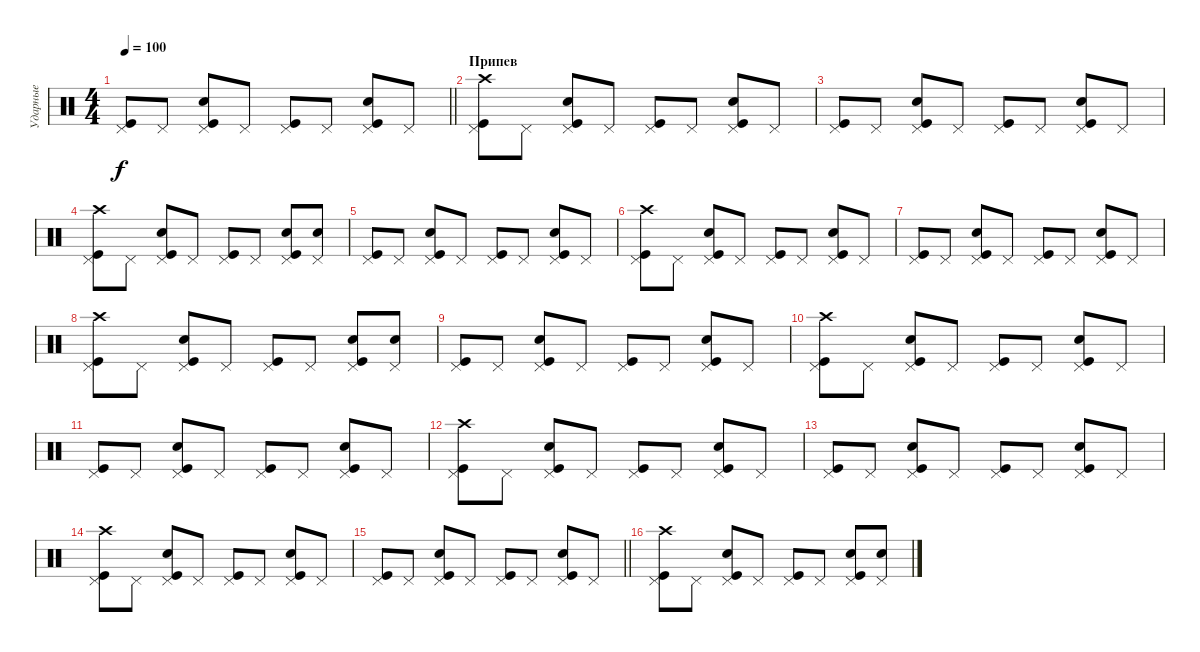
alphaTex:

\track ("Ударные" "Ударные") {instrument percussion}
\staff {score}
\articulation defaults
\ts (4 4)
\tempo 100
\clef neutral
\barLineRight lightlight
\ks c
("Pedal Hi-Hat (hit)" "Kick (hit)").8{dy f} "Pedal Hi-Hat (hit)".8 ("Pedal Hi-Hat (hit)" "Kick (hit)" "Snare (hit) 2").8 "Pedal Hi-Hat (hit)".8 ("Pedal Hi-Hat (hit)" "Kick (hit)").8 "Pedal Hi-Hat (hit)".8 ("Pedal Hi-Hat (hit)" "Kick (hit)" "Snare (hit) 2").8 "Pedal Hi-Hat (hit)".8 |
\section ("" "Припев")
("Pedal Hi-Hat (hit)" "Kick (hit)" "Crash high (hit)").8 "Pedal Hi-Hat (hit)".8 ("Pedal Hi-Hat (hit)" "Kick (hit)" "Snare (hit) 2").8 "Pedal Hi-Hat (hit)".8 ("Pedal Hi-Hat (hit)" "Kick (hit)").8 "Pedal Hi-Hat (hit)".8 ("Pedal Hi-Hat (hit)" "Kick (hit)" "Snare (hit) 2").8 "Pedal Hi-Hat (hit)".8 |
("Pedal Hi-Hat (hit)" "Kick (hit)").8 "Pedal Hi-Hat (hit)".8 ("Pedal Hi-Hat (hit)" "Kick (hit)" "Snare (hit) 2").8 "Pedal Hi-Hat (hit)".8 ("Pedal Hi-Hat (hit)" "Kick (hit)").8 "Pedal Hi-Hat (hit)".8 ("Pedal Hi-Hat (hit)" "Kick (hit)" "Snare (hit) 2").8 "Pedal Hi-Hat (hit)".8 |
("Pedal Hi-Hat (hit)" "Kick (hit)" "Crash high (hit)").8 "Pedal Hi-Hat (hit)".8 ("Pedal Hi-Hat (hit)" "Kick (hit)" "Snare (hit) 2").8 "Pedal Hi-Hat (hit)".8 ("Pedal Hi-Hat (hit)" "Kick (hit)").8 "Pedal Hi-Hat (hit)".8 ("Pedal Hi-Hat (hit)" "Kick (hit)" "Snare (hit) 2").8 ("Pedal Hi-Hat (hit)" "Snare (hit) 2").8 |
("Pedal Hi-Hat (hit)" "Kick (hit)").8 "Pedal Hi-Hat (hit)".8 ("Pedal Hi-Hat (hit)" "Kick (hit)" "Snare (hit) 2").8 "Pedal Hi-Hat (hit)".8 ("Pedal Hi-Hat (hit)" "Kick (hit)").8 "Pedal Hi-Hat (hit)".8 ("Pedal Hi-Hat (hit)" "Kick (hit)" "Snare (hit) 2").8 "Pedal Hi-Hat (hit)".8 |
("Pedal Hi-Hat (hit)" "Kick (hit)" "Crash high (hit)").8 "Pedal Hi-Hat (hit)".8 ("Pedal Hi-Hat (hit)" "Kick (hit)" "Snare (hit) 2").8 "Pedal Hi-Hat (hit)".8 ("Pedal Hi-Hat (hit)" "Kick (hit)").8 "Pedal Hi-Hat (hit)".8 ("Pedal Hi-Hat (hit)" "Kick (hit)" "Snare (hit) 2").8 "Pedal Hi-Hat (hit)".8 |
("Pedal Hi-Hat (hit)" "Kick (hit)").8 "Pedal Hi-Hat (hit)".8 ("Pedal Hi-Hat (hit)" "Kick (hit)" "Snare (hit) 2").8 "Pedal Hi-Hat (hit)".8 ("Pedal Hi-Hat (hit)" "Kick (hit)").8 "Pedal Hi-Hat (hit)".8 ("Pedal Hi-Hat (hit)" "Kick (hit)" "Snare (hit) 2").8 "Pedal Hi-Hat (hit)".8 |
("Pedal Hi-Hat (hit)" "Kick (hit)" "Crash high (hit)").8 "Pedal Hi-Hat (hit)".8 ("Pedal Hi-Hat (hit)" "Kick (hit)" "Snare (hit) 2").8 "Pedal Hi-Hat (hit)".8 ("Pedal Hi-Hat (hit)" "Kick (hit)").8 "Pedal Hi-Hat (hit)".8 ("Pedal Hi-Hat (hit)" "Kick (hit)" "Snare (hit) 2").8 ("Pedal Hi-Hat (hit)" "Snare (hit) 2").8 |
("Pedal Hi-Hat (hit)" "Kick (hit)").8 "Pedal Hi-Hat (hit)".8 ("Pedal Hi-Hat (hit)" "Kick (hit)" "Snare (hit) 2").8 "Pedal Hi-Hat (hit)".8 ("Pedal Hi-Hat (hit)" "Kick (hit)").8 "Pedal Hi-Hat (hit)".8 ("Pedal Hi-Hat (hit)" "Kick (hit)" "Snare (hit) 2").8 "Pedal Hi-Hat (hit)".8 |
("Pedal Hi-Hat (hit)" "Kick (hit)" "Crash high (hit)").8 "Pedal Hi-Hat (hit)".8 ("Pedal Hi-Hat (hit)" "Kick (hit)" "Snare (hit) 2").8 "Pedal Hi-Hat (hit)".8 ("Pedal Hi-Hat (hit)" "Kick (hit)").8 "Pedal Hi-Hat (hit)".8 ("Pedal Hi-Hat (hit)" "Kick (hit)" "Snare (hit) 2").8 "Pedal Hi-Hat (hit)".8 |
("Pedal Hi-Hat (hit)" "Kick (hit)").8 "Pedal Hi-Hat (hit)".8 ("Pedal Hi-Hat (hit)" "Kick (hit)" "Snare (hit) 2").8 "Pedal Hi-Hat (hit)".8 ("Pedal Hi-Hat (hit)" "Kick (hit)").8 "Pedal Hi-Hat (hit)".8 ("Pedal Hi-Hat (hit)" "Kick (hit)" "Snare (hit) 2").8 "Pedal Hi-Hat (hit)".8 |
("Pedal Hi-Hat (hit)" "Kick (hit)" "Crash high (hit)").8 "Pedal Hi-Hat (hit)".8 ("Pedal Hi-Hat (hit)" "Kick (hit)" "Snare (hit) 2").8 "Pedal Hi-Hat (hit)".8 ("Pedal Hi-Hat (hit)" "Kick (hit)").8 "Pedal Hi-Hat (hit)".8 ("Pedal Hi-Hat (hit)" "Kick (hit)" "Snare (hit) 2").8 "Pedal Hi-Hat (hit)".8 |
("Pedal Hi-Hat (hit)" "Kick (hit)").8 "Pedal Hi-Hat (hit)".8 ("Pedal Hi-Hat (hit)" "Kick (hit)" "Snare (hit) 2").8 "Pedal Hi-Hat (hit)".8 ("Pedal Hi-Hat (hit)" "Kick (hit)").8 "Pedal Hi-Hat (hit)".8 ("Pedal Hi-Hat (hit)" "Kick (hit)" "Snare (hit) 2").8 "Pedal Hi-Hat (hit)".8 |
("Pedal Hi-Hat (hit)" "Kick (hit)" "Crash high (hit)").8 "Pedal Hi-Hat (hit)".8 ("Pedal Hi-Hat (hit)" "Kick (hit)" "Snare (hit) 2").8 "Pedal Hi-Hat (hit)".8 ("Pedal Hi-Hat (hit)" "Kick (hit)").8 "Pedal Hi-Hat (hit)".8 ("Pedal Hi-Hat (hit)" "Kick (hit)" "Snare (hit) 2").8 "Pedal Hi-Hat (hit)".8 |
\barLineRight lightlight
("Pedal Hi-Hat (hit)" "Kick (hit)").8 "Pedal Hi-Hat (hit)".8 ("Pedal Hi-Hat (hit)" "Kick (hit)" "Snare (hit) 2").8 "Pedal Hi-Hat (hit)".8 ("Pedal Hi-Hat (hit)" "Kick (hit)").8 "Pedal Hi-Hat (hit)".8 ("Pedal Hi-Hat (hit)" "Kick (hit)" "Snare (hit) 2").8 "Pedal Hi-Hat (hit)".8 |
("Pedal Hi-Hat (hit)" "Kick (hit)" "Crash high (hit)").8 "Pedal Hi-Hat (hit)".8 ("Pedal Hi-Hat (hit)" "Kick (hit)" "Snare (hit) 2").8 "Pedal Hi-Hat (hit)".8 ("Pedal Hi-Hat (hit)" "Kick (hit)").8 "Pedal Hi-Hat (hit)".8 ("Pedal Hi-Hat (hit)" "Kick (hit)" "Snare (hit) 2").8 ("Pedal Hi-Hat (hit)" "Snare (hit) 2").8
